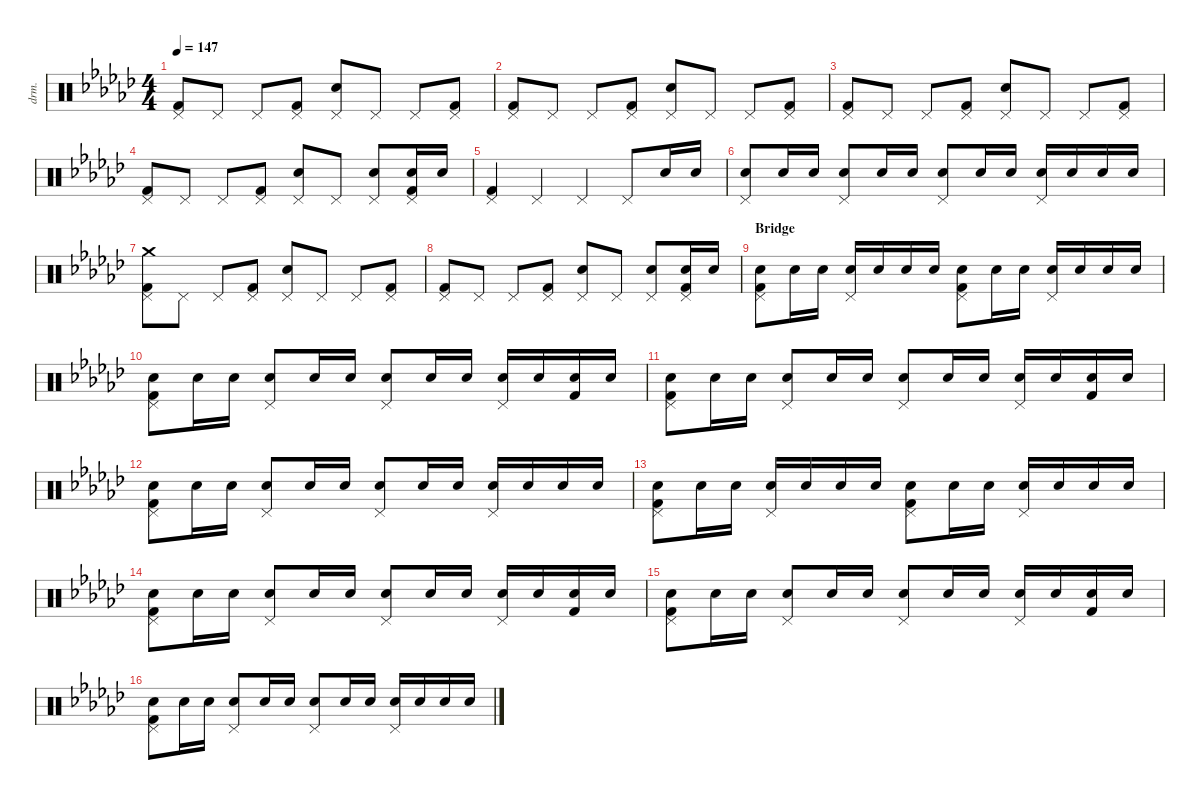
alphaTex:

\defaultSystemsLayout 8
\hideDynamics
\bracketExtendMode nobrackets
\otherSystemsTrackNameOrientation horizontal
\track ("Drums" "drm.") {defaultSystemsLayout 4 instrument percussion}
\staff {score}
\articulation defaults
\ts (4 4)
\tempo 147
\clef neutral
\ks ebminor
("Pedal Hi-Hat (hit)"{acc forcenatural} "Kick (hit) 2"{acc forcenatural}).8{dy f beam Up} "Pedal Hi-Hat (hit)"{acc forcenatural}.8{dy mp beam Up} "Pedal Hi-Hat (hit)"{acc forcenatural}.8{dy f beam Up} ("Pedal Hi-Hat (hit)"{acc forcenatural} "Kick (hit) 2"{acc forcenatural}).8{dy mp beam Up} ("Pedal Hi-Hat (hit)"{acc forcenatural} "Snare (hit) 2"{acc forcenatural}).8{dy f beam Up} "Pedal Hi-Hat (hit)"{acc forcenatural}.8{dy mp beam Up} "Pedal Hi-Hat (hit)"{acc forcenatural}.8{dy f beam Up} ("Pedal Hi-Hat (hit)"{acc forcenatural} "Kick (hit) 2"{acc forcenatural}).8{dy mp beam Up} |
("Pedal Hi-Hat (hit)"{acc forcenatural} "Kick (hit) 2"{acc forcenatural}).8{dy f beam Up} "Pedal Hi-Hat (hit)"{acc forcenatural}.8{dy mp beam Up} "Pedal Hi-Hat (hit)"{acc forcenatural}.8{dy f beam Up} ("Pedal Hi-Hat (hit)"{acc forcenatural} "Kick (hit) 2"{acc forcenatural}).8{dy mp beam Up} ("Pedal Hi-Hat (hit)"{acc forcenatural} "Snare (hit) 2"{acc forcenatural}).8{dy f beam Up} "Pedal Hi-Hat (hit)"{acc forcenatural}.8{dy mp beam Up} "Pedal Hi-Hat (hit)"{acc forcenatural}.8{dy f beam Up} ("Pedal Hi-Hat (hit)"{acc forcenatural} "Kick (hit) 2"{acc forcenatural}).8{dy mp beam Up} |
("Pedal Hi-Hat (hit)"{acc forcenatural} "Kick (hit) 2"{acc forcenatural}).8{dy f beam Up} "Pedal Hi-Hat (hit)"{acc forcenatural}.8{dy mp beam Up} "Pedal Hi-Hat (hit)"{acc forcenatural}.8{dy f beam Up} ("Pedal Hi-Hat (hit)"{acc forcenatural} "Kick (hit) 2"{acc forcenatural}).8{dy mp beam Up} ("Pedal Hi-Hat (hit)"{acc forcenatural} "Snare (hit) 2"{acc forcenatural}).8{dy f beam Up} "Pedal Hi-Hat (hit)"{acc forcenatural}.8{dy mp beam Up} "Pedal Hi-Hat (hit)"{acc forcenatural}.8{dy f beam Up} ("Pedal Hi-Hat (hit)"{acc forcenatural} "Kick (hit) 2"{acc forcenatural}).8{dy mp beam Up} |
("Pedal Hi-Hat (hit)"{acc forcenatural} "Kick (hit) 2"{acc forcenatural}).8{dy f beam Up} "Pedal Hi-Hat (hit)"{acc forcenatural}.8{dy mp beam Up} "Pedal Hi-Hat (hit)"{acc forcenatural}.8{dy f beam Up} ("Pedal Hi-Hat (hit)"{acc forcenatural} "Kick (hit) 2"{acc forcenatural}).8{dy mp beam Up} ("Pedal Hi-Hat (hit)"{acc forcenatural} "Snare (hit) 2"{acc forcenatural}).8{dy f beam Up} "Pedal Hi-Hat (hit)"{acc forcenatural}.8{dy mp beam Up} ("Pedal Hi-Hat (hit)"{acc forcenatural} "Snare (hit) 2"{acc forcenatural}).8{dy f beam Up} ("Pedal Hi-Hat (hit)"{acc forcenatural} "Snare (hit) 2"{acc forcenatural} "Kick (hit) 2"{acc forcenatural}).16{dy mp beam Up} "Snare (hit) 2"{acc forcenatural}.16{dy f beam Up} |
("Pedal Hi-Hat (hit)"{acc forcenatural} "Kick (hit) 2"{acc forcenatural}).4{beam Up} "Pedal Hi-Hat (hit)"{acc forcenatural}.4{beam Up} "Pedal Hi-Hat (hit)"{acc forcenatural}.4{beam Up} "Pedal Hi-Hat (hit)"{acc forcenatural}.8{beam Up} "Snare (hit) 2"{acc forcenatural}.16{dy mf beam Up} "Snare (hit) 2"{acc forcenatural}.16{beam Up} |
("Pedal Hi-Hat (hit)"{acc forcenatural} "Snare (hit) 2"{acc forcenatural}).8{dy f beam Up} "Snare (hit) 2"{acc forcenatural}.16{dy mf beam Up} "Snare (hit) 2"{acc forcenatural}.16{beam Up} ("Pedal Hi-Hat (hit)"{acc forcenatural} "Snare (hit) 2"{acc forcenatural}).8{dy f beam Up} "Snare (hit) 2"{acc forcenatural}.16{dy mf beam Up} "Snare (hit) 2"{acc forcenatural}.16{beam Up} ("Pedal Hi-Hat (hit)"{acc forcenatural} "Snare (hit) 2"{acc forcenatural}).8{dy f beam Up} "Snare (hit) 2"{acc forcenatural}.16{dy mf beam Up} "Snare (hit) 2"{acc forcenatural}.16{beam Up} ("Pedal Hi-Hat (hit)"{acc forcenatural} "Snare (hit) 2"{acc forcenatural}).16{dy f beam Up} "Snare (hit) 2"{acc forcenatural}.16{dy mf beam Up} "Snare (hit) 2"{acc forcenatural}.16{beam Up} "Snare (hit) 2"{acc forcenatural}.16{beam Up} |
("Pedal Hi-Hat (hit)"{acc forcenatural} "Kick (hit) 2"{acc forcenatural} "Crash medium (hit)"{acc forcenatural}).8{dy f beam Down} "Pedal Hi-Hat (hit)"{acc forcenatural}.8{dy mp beam Down} "Pedal Hi-Hat (hit)"{acc forcenatural}.8{dy f beam Up} ("Pedal Hi-Hat (hit)"{acc forcenatural} "Kick (hit) 2"{acc forcenatural}).8{dy mp beam Up} ("Pedal Hi-Hat (hit)"{acc forcenatural} "Snare (hit) 2"{acc forcenatural}).8{dy f beam Up} "Pedal Hi-Hat (hit)"{acc forcenatural}.8{dy mp beam Up} "Pedal Hi-Hat (hit)"{acc forcenatural}.8{dy f beam Up} ("Pedal Hi-Hat (hit)"{acc forcenatural} "Kick (hit) 2"{acc forcenatural}).8{dy mp beam Up} |
("Pedal Hi-Hat (hit)"{acc forcenatural} "Kick (hit) 2"{acc forcenatural}).8{dy f beam Up} "Pedal Hi-Hat (hit)"{acc forcenatural}.8{dy mp beam Up} "Pedal Hi-Hat (hit)"{acc forcenatural}.8{dy f beam Up} ("Pedal Hi-Hat (hit)"{acc forcenatural} "Kick (hit) 2"{acc forcenatural}).8{dy mp beam Up} ("Pedal Hi-Hat (hit)"{acc forcenatural} "Snare (hit) 2"{acc forcenatural}).8{dy f beam Up} "Pedal Hi-Hat (hit)"{acc forcenatural}.8{dy mp beam Up} ("Pedal Hi-Hat (hit)"{acc forcenatural} "Snare (hit) 2"{acc forcenatural}).8{dy f beam Up} ("Pedal Hi-Hat (hit)"{acc forcenatural} "Snare (hit) 2"{acc forcenatural} "Kick (hit) 2"{acc forcenatural}).16{dy mp beam Up} "Snare (hit) 2"{acc forcenatural}.16{dy f beam Up} |
\section ("" "Bridge")
("Pedal Hi-Hat (hit)"{acc forcenatural} "Kick (hit) 2"{acc forcenatural} "Snare (hit) 2"{acc forcenatural}).8{beam Down} "Snare (hit) 2"{acc forcenatural}.16{dy mf beam Down} "Snare (hit) 2"{acc forcenatural}.16{beam Down} ("Pedal Hi-Hat (hit)"{acc forcenatural} "Snare (hit) 2"{acc forcenatural}).16{dy f beam Up} "Snare (hit) 2"{acc forcenatural}.16{dy mf beam Up} "Snare (hit) 2"{acc forcenatural}.16{beam Up} "Snare (hit) 2"{acc forcenatural}.16{beam Up} ("Pedal Hi-Hat (hit)"{acc forcenatural} "Kick (hit) 2"{acc forcenatural} "Snare (hit) 2"{acc forcenatural}).8{dy f beam Down} "Snare (hit) 2"{acc forcenatural}.16{dy mf beam Down} "Snare (hit) 2"{acc forcenatural}.16{beam Down} ("Pedal Hi-Hat (hit)"{acc forcenatural} "Snare (hit) 2"{acc forcenatural}).16{dy f beam Up} "Snare (hit) 2"{acc forcenatural}.16{dy mf beam Up} "Snare (hit) 2"{acc forcenatural}.16{beam Up} "Snare (hit) 2"{acc forcenatural}.16{beam Up} |
("Pedal Hi-Hat (hit)"{acc forcenatural} "Kick (hit) 2"{acc forcenatural} "Snare (hit) 2"{acc forcenatural}).8{dy f beam Down} "Snare (hit) 2"{acc forcenatural}.16{dy mf beam Down} "Snare (hit) 2"{acc forcenatural}.16{beam Down} ("Pedal Hi-Hat (hit)"{acc forcenatural} "Snare (hit) 2"{acc forcenatural}).8{dy f beam Up} "Snare (hit) 2"{acc forcenatural}.16{dy mf beam Up} "Snare (hit) 2"{acc forcenatural}.16{beam Up} ("Pedal Hi-Hat (hit)"{acc forcenatural} "Snare (hit) 2"{acc forcenatural}).8{dy f beam Up} "Snare (hit) 2"{acc forcenatural}.16{dy mf beam Up} "Snare (hit) 2"{acc forcenatural}.16{beam Up} ("Pedal Hi-Hat (hit)"{acc forcenatural} "Snare (hit) 2"{acc forcenatural}).16{dy f beam Up} "Snare (hit) 2"{acc forcenatural}.16{dy mf beam Up} ("Kick (hit) 2"{acc forcenatural} "Snare (hit) 2"{acc forcenatural}).16{dy f beam Up} "Snare (hit) 2"{acc forcenatural}.16{dy mf beam Up} |
("Pedal Hi-Hat (hit)"{acc forcenatural} "Kick (hit) 2"{acc forcenatural} "Snare (hit) 2"{acc forcenatural}).8{dy f beam Down} "Snare (hit) 2"{acc forcenatural}.16{dy mf beam Down} "Snare (hit) 2"{acc forcenatural}.16{beam Down} ("Pedal Hi-Hat (hit)"{acc forcenatural} "Snare (hit) 2"{acc forcenatural}).8{dy f beam Up} "Snare (hit) 2"{acc forcenatural}.16{dy mf beam Up} "Snare (hit) 2"{acc forcenatural}.16{beam Up} ("Pedal Hi-Hat (hit)"{acc forcenatural} "Snare (hit) 2"{acc forcenatural}).8{dy f beam Up} "Snare (hit) 2"{acc forcenatural}.16{dy mf beam Up} "Snare (hit) 2"{acc forcenatural}.16{beam Up} ("Pedal Hi-Hat (hit)"{acc forcenatural} "Snare (hit) 2"{acc forcenatural}).16{dy f beam Up} "Snare (hit) 2"{acc forcenatural}.16{dy mf beam Up} ("Kick (hit) 2"{acc forcenatural} "Snare (hit) 2"{acc forcenatural}).16{dy f beam Up} "Snare (hit) 2"{acc forcenatural}.16{dy mf beam Up} |
("Pedal Hi-Hat (hit)"{acc forcenatural} "Kick (hit) 2"{acc forcenatural} "Snare (hit) 2"{acc forcenatural}).8{dy f beam Down} "Snare (hit) 2"{acc forcenatural}.16{dy mf beam Down} "Snare (hit) 2"{acc forcenatural}.16{beam Down} ("Pedal Hi-Hat (hit)"{acc forcenatural} "Snare (hit) 2"{acc forcenatural}).8{dy f beam Up} "Snare (hit) 2"{acc forcenatural}.16{dy mf beam Up} "Snare (hit) 2"{acc forcenatural}.16{beam Up} ("Pedal Hi-Hat (hit)"{acc forcenatural} "Snare (hit) 2"{acc forcenatural}).8{dy f beam Up} "Snare (hit) 2"{acc forcenatural}.16{dy mf beam Up} "Snare (hit) 2"{acc forcenatural}.16{beam Up} ("Pedal Hi-Hat (hit)"{acc forcenatural} "Snare (hit) 2"{acc forcenatural}).16{dy f beam Up} "Snare (hit) 2"{acc forcenatural}.16{dy mf beam Up} "Snare (hit) 2"{acc forcenatural}.16{beam Up} "Snare (hit) 2"{acc forcenatural}.16{beam Up} |
("Pedal Hi-Hat (hit)"{acc forcenatural} "Kick (hit) 2"{acc forcenatural} "Snare (hit) 2"{acc forcenatural}).8{dy f beam Down} "Snare (hit) 2"{acc forcenatural}.16{dy mf beam Down} "Snare (hit) 2"{acc forcenatural}.16{beam Down} ("Pedal Hi-Hat (hit)"{acc forcenatural} "Snare (hit) 2"{acc forcenatural}).16{dy f beam Up} "Snare (hit) 2"{acc forcenatural}.16{dy mf beam Up} "Snare (hit) 2"{acc forcenatural}.16{beam Up} "Snare (hit) 2"{acc forcenatural}.16{beam Up} ("Pedal Hi-Hat (hit)"{acc forcenatural} "Kick (hit) 2"{acc forcenatural} "Snare (hit) 2"{acc forcenatural}).8{dy f beam Down} "Snare (hit) 2"{acc forcenatural}.16{dy mf beam Down} "Snare (hit) 2"{acc forcenatural}.16{beam Down} ("Pedal Hi-Hat (hit)"{acc forcenatural} "Snare (hit) 2"{acc forcenatural}).16{dy f beam Up} "Snare (hit) 2"{acc forcenatural}.16{dy mf beam Up} "Snare (hit) 2"{acc forcenatural}.16{beam Up} "Snare (hit) 2"{acc forcenatural}.16{beam Up} |
("Pedal Hi-Hat (hit)"{acc forcenatural} "Kick (hit) 2"{acc forcenatural} "Snare (hit) 2"{acc forcenatural}).8{dy f beam Down} "Snare (hit) 2"{acc forcenatural}.16{dy mf beam Down} "Snare (hit) 2"{acc forcenatural}.16{beam Down} ("Pedal Hi-Hat (hit)"{acc forcenatural} "Snare (hit) 2"{acc forcenatural}).8{dy f beam Up} "Snare (hit) 2"{acc forcenatural}.16{dy mf beam Up} "Snare (hit) 2"{acc forcenatural}.16{beam Up} ("Pedal Hi-Hat (hit)"{acc forcenatural} "Snare (hit) 2"{acc forcenatural}).8{dy f beam Up} "Snare (hit) 2"{acc forcenatural}.16{dy mf beam Up} "Snare (hit) 2"{acc forcenatural}.16{beam Up} ("Pedal Hi-Hat (hit)"{acc forcenatural} "Snare (hit) 2"{acc forcenatural}).16{dy f beam Up} "Snare (hit) 2"{acc forcenatural}.16{dy mf beam Up} ("Kick (hit) 2"{acc forcenatural} "Snare (hit) 2"{acc forcenatural}).16{dy f beam Up} "Snare (hit) 2"{acc forcenatural}.16{dy mf beam Up} |
("Pedal Hi-Hat (hit)"{acc forcenatural} "Kick (hit) 2"{acc forcenatural} "Snare (hit) 2"{acc forcenatural}).8{dy f beam Down} "Snare (hit) 2"{acc forcenatural}.16{dy mf beam Down} "Snare (hit) 2"{acc forcenatural}.16{beam Down} ("Pedal Hi-Hat (hit)"{acc forcenatural} "Snare (hit) 2"{acc forcenatural}).8{dy f beam Up} "Snare (hit) 2"{acc forcenatural}.16{dy mf beam Up} "Snare (hit) 2"{acc forcenatural}.16{beam Up} ("Pedal Hi-Hat (hit)"{acc forcenatural} "Snare (hit) 2"{acc forcenatural}).8{dy f beam Up} "Snare (hit) 2"{acc forcenatural}.16{dy mf beam Up} "Snare (hit) 2"{acc forcenatural}.16{beam Up} ("Pedal Hi-Hat (hit)"{acc forcenatural} "Snare (hit) 2"{acc forcenatural}).16{dy f beam Up} "Snare (hit) 2"{acc forcenatural}.16{dy mf beam Up} ("Kick (hit) 2"{acc forcenatural} "Snare (hit) 2"{acc forcenatural}).16{dy f beam Up} "Snare (hit) 2"{acc forcenatural}.16{dy mf beam Up} |
("Pedal Hi-Hat (hit)"{acc forcenatural} "Kick (hit) 2"{acc forcenatural} "Snare (hit) 2"{acc forcenatural}).8{dy f beam Down} "Snare (hit) 2"{acc forcenatural}.16{dy mf beam Down} "Snare (hit) 2"{acc forcenatural}.16{beam Down} ("Pedal Hi-Hat (hit)"{acc forcenatural} "Snare (hit) 2"{acc forcenatural}).8{dy f beam Up} "Snare (hit) 2"{acc forcenatural}.16{dy mf beam Up} "Snare (hit) 2"{acc forcenatural}.16{beam Up} ("Pedal Hi-Hat (hit)"{acc forcenatural} "Snare (hit) 2"{acc forcenatural}).8{dy f beam Up} "Snare (hit) 2"{acc forcenatural}.16{dy mf beam Up} "Snare (hit) 2"{acc forcenatural}.16{beam Up} ("Pedal Hi-Hat (hit)"{acc forcenatural} "Snare (hit) 2"{acc forcenatural}).16{dy f beam Up} "Snare (hit) 2"{acc forcenatural}.16{dy mf beam Up} "Snare (hit) 2"{acc forcenatural}.16{beam Up} "Snare (hit) 2"{acc forcenatural}.16{beam Up}
